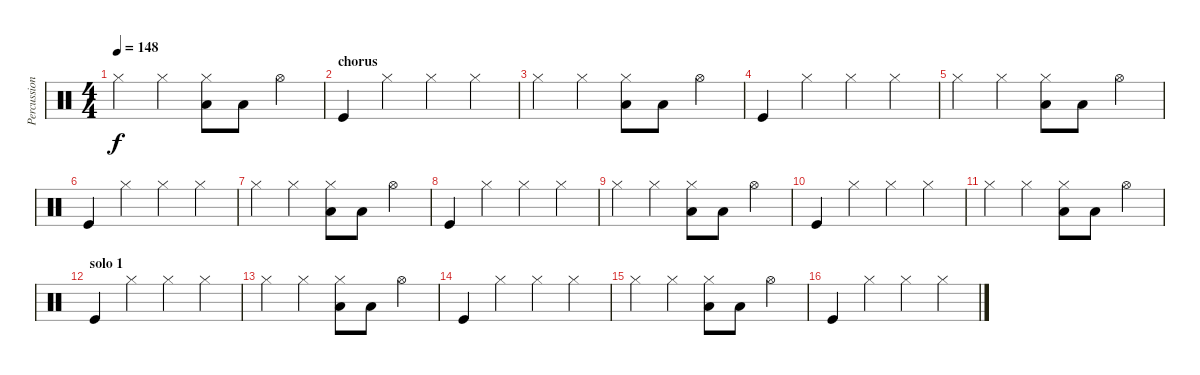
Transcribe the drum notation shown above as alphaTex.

\track ("Percussions" "Percussion") {instrument percussion}
\staff {score}
\articulation defaults
\ts (4 4)
\tempo 148
\clef neutral
\ks c "Hi-Hat (closed)".4{dy f} "Hi-Hat (closed)".4
("Hi-Hat (closed)" "Low Tom (hit)").8 "Low Tom (hit)".8 "Hi-Hat (open)".4 |
\section ("" "chorus")
"Kick (hit)".4 "Hi-Hat (closed)".4 "Hi-Hat (closed)".4 "Hi-Hat (closed)".4 |
"Hi-Hat (closed)".4 "Hi-Hat (closed)".4 ("Hi-Hat (closed)" "Low Tom (hit)").8 "Low Tom (hit)".8 "Hi-Hat (open)".4 |
"Kick (hit)".4 "Hi-Hat (closed)".4 "Hi-Hat (closed)".4 "Hi-Hat (closed)".4 |
"Hi-Hat (closed)".4 "Hi-Hat (closed)".4 ("Hi-Hat (closed)" "Low Tom (hit)").8 "Low Tom (hit)".8 "Hi-Hat (open)".4 |
"Kick (hit)".4 "Hi-Hat (closed)".4 "Hi-Hat (closed)".4 "Hi-Hat (closed)".4 |
"Hi-Hat (closed)".4 "Hi-Hat (closed)".4 ("Hi-Hat (closed)" "Low Tom (hit)").8 "Low Tom (hit)".8 "Hi-Hat (open)".4 |
"Kick (hit)".4 "Hi-Hat (closed)".4 "Hi-Hat (closed)".4 "Hi-Hat (closed)".4 |
"Hi-Hat (closed)".4 "Hi-Hat (closed)".4 ("Hi-Hat (closed)" "Low Tom (hit)").8 "Low Tom (hit)".8 "Hi-Hat (open)".4 |
"Kick (hit)".4 "Hi-Hat (closed)".4 "Hi-Hat (closed)".4 "Hi-Hat (closed)".4 |
"Hi-Hat (closed)".4 "Hi-Hat (closed)".4 ("Hi-Hat (closed)" "Low Tom (hit)").8 "Low Tom (hit)".8 "Hi-Hat (open)".4 |
\section ("" "solo 1")
"Kick (hit)".4 "Hi-Hat (closed)".4 "Hi-Hat (closed)".4 "Hi-Hat (closed)".4 |
"Hi-Hat (closed)".4 "Hi-Hat (closed)".4 ("Hi-Hat (closed)" "Low Tom (hit)").8 "Low Tom (hit)".8 "Hi-Hat (open)".4 |
"Kick (hit)".4 "Hi-Hat (closed)".4 "Hi-Hat (closed)".4 "Hi-Hat (closed)".4 |
"Hi-Hat (closed)".4 "Hi-Hat (closed)".4 ("Hi-Hat (closed)" "Low Tom (hit)").8 "Low Tom (hit)".8 "Hi-Hat (open)".4 |
"Kick (hit)".4 "Hi-Hat (closed)".4 "Hi-Hat (closed)".4 "Hi-Hat (closed)".4
